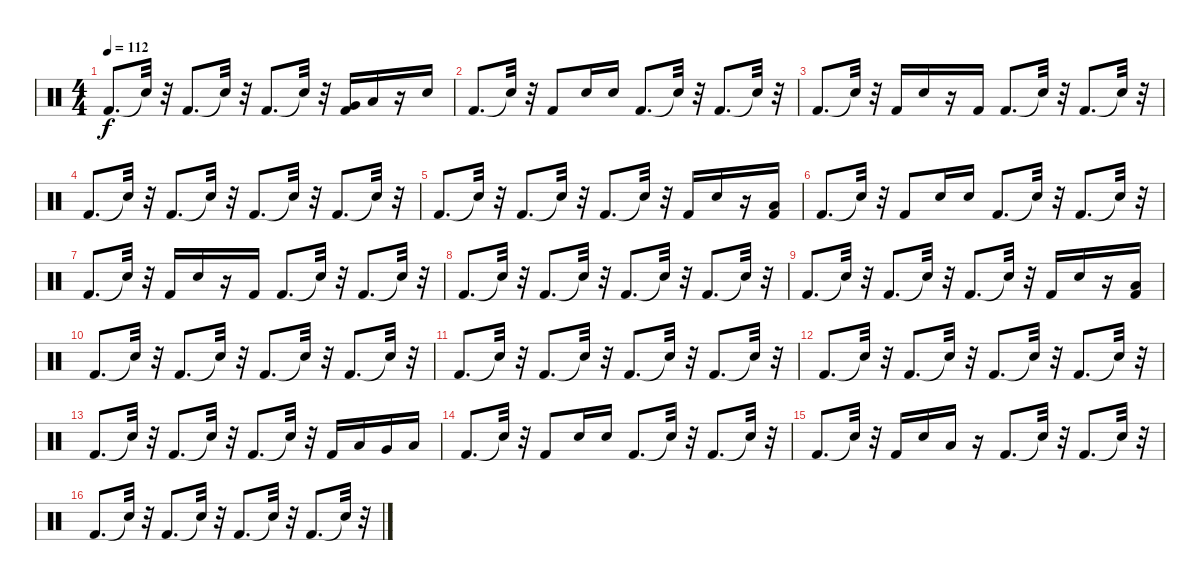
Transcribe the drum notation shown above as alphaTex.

\track "" {instrument percussion}
\staff {score}
\articulation defaults
\ts (4 4)
\tempo 112
\clef neutral
\ks c "Kick (hit) 2".8{d dy f} "Snare (hit)"{t}.32
r.32 "Kick (hit) 2".8{d} "Snare (hit)"{t}.32 r.32 "Kick (hit) 2".8{d} "Snare (hit)"{t}.32 r.32 ("Kick (hit) 2" "Very Low Tom (hit)").16 "Low Floor Tom (hit)".16 r.16 "Snare (hit) 2".16 |
"Kick (hit) 2".8{d} "Snare (hit)"{t}.32 r.32 "Kick (hit) 2".8 "Snare (hit) 2".16 "Snare (hit) 2".16 "Kick (hit) 2".8{d} "Snare (hit)"{t}.32 r.32 "Kick (hit) 2".8{d} "Snare (hit)"{t}.32 r.32 |
"Kick (hit) 2".8{d} "Snare (hit)"{t}.32 r.32 "Kick (hit) 2".16 "Snare (hit) 2".16 r.16 "Kick (hit) 2".16 "Kick (hit) 2".8{d} "Snare (hit)"{t}.32 r.32 "Kick (hit) 2".8{d} "Snare (hit)"{t}.32 r.32 |
"Kick (hit) 2".8{d} "Snare (hit)"{t}.32 r.32 "Kick (hit) 2".8{d} "Snare (hit)"{t}.32 r.32 "Kick (hit) 2".8{d} "Snare (hit)"{t}.32 r.32 "Kick (hit) 2".8{d} "Snare (hit)"{t}.32 r.32 |
"Kick (hit) 2".8{d} "Snare (hit)"{t}.32 r.32 "Kick (hit) 2".8{d} "Snare (hit)"{t}.32 r.32 "Kick (hit) 2".8{d} "Snare (hit)"{t}.32 r.32 "Kick (hit) 2".16 "Snare (hit) 2".16 r.16 ("Kick (hit) 2" "Low Floor Tom (hit)").16 |
"Kick (hit) 2".8{d} "Snare (hit)"{t}.32 r.32 "Kick (hit) 2".8 "Snare (hit) 2".16 "Snare (hit) 2".16 "Kick (hit) 2".8{d} "Snare (hit)"{t}.32 r.32 "Kick (hit) 2".8{d} "Snare (hit)"{t}.32 r.32 |
"Kick (hit) 2".8{d} "Snare (hit)"{t}.32 r.32 "Kick (hit) 2".16 "Snare (hit) 2".16 r.16 "Kick (hit) 2".16 "Kick (hit) 2".8{d} "Snare (hit)"{t}.32 r.32 "Kick (hit) 2".8{d} "Snare (hit)"{t}.32 r.32 |
"Kick (hit) 2".8{d} "Snare (hit)"{t}.32 r.32 "Kick (hit) 2".8{d} "Snare (hit)"{t}.32 r.32 "Kick (hit) 2".8{d} "Snare (hit)"{t}.32 r.32 "Kick (hit) 2".8{d} "Snare (hit)"{t}.32 r.32 |
"Kick (hit) 2".8{d} "Snare (hit)"{t}.32 r.32 "Kick (hit) 2".8{d} "Snare (hit)"{t}.32 r.32 "Kick (hit) 2".8{d} "Snare (hit)"{t}.32 r.32 "Kick (hit) 2".16 "Snare (hit) 2".16 r.16 ("Kick (hit) 2" "Low Floor Tom (hit)").16 |
"Kick (hit) 2".8{d} "Snare (hit)"{t}.32 r.32 "Kick (hit) 2".8{d} "Snare (hit)"{t}.32 r.32 "Kick (hit) 2".8{d} "Snare (hit)"{t}.32 r.32 "Kick (hit) 2".8{d} "Snare (hit)"{t}.32 r.32 |
"Kick (hit) 2".8{d} "Snare (hit)"{t}.32 r.32 "Kick (hit) 2".8{d} "Snare (hit)"{t}.32 r.32 "Kick (hit) 2".8{d} "Snare (hit)"{t}.32 r.32 "Kick (hit) 2".8{d} "Snare (hit)"{t}.32 r.32 |
"Kick (hit) 2".8{d} "Snare (hit)"{t}.32 r.32 "Kick (hit) 2".8{d} "Snare (hit)"{t}.32 r.32 "Kick (hit) 2".8{d} "Snare (hit)"{t}.32 r.32 "Kick (hit) 2".8{d} "Snare (hit)"{t}.32 r.32 |
"Kick (hit) 2".8{d} "Snare (hit)"{t}.32 r.32 "Kick (hit) 2".8{d} "Snare (hit)"{t}.32 r.32 "Kick (hit) 2".8{d} "Snare (hit)"{t}.32 r.32 "Kick (hit) 2".16 "Low Tom (hit)".16 "Very Low Tom (hit)".16 "Low Floor Tom (hit)".16 |
"Kick (hit) 2".8{d} "Snare (hit)"{t}.32 r.32 "Kick (hit) 2".8 "Snare (hit) 2".16 "Snare (hit) 2".16 "Kick (hit) 2".8{d} "Snare (hit)"{t}.32 r.32 "Kick (hit) 2".8{d} "Snare (hit)"{t}.32 r.32 |
"Kick (hit) 2".8{d} "Snare (hit)"{t}.32 r.32 "Kick (hit) 2".16 "Snare (hit) 2".16 "Low Floor Tom (hit)".16 r.16 "Kick (hit) 2".8{d} "Snare (hit)"{t}.32 r.32 "Kick (hit) 2".8{d} "Snare (hit)"{t}.32 r.32 |
"Kick (hit) 2".8{d} "Snare (hit)"{t}.32 r.32 "Kick (hit) 2".8{d} "Snare (hit)"{t}.32 r.32 "Kick (hit) 2".8{d} "Snare (hit)"{t}.32 r.32 "Kick (hit) 2".8{d} "Snare (hit)"{t}.32 r.32
